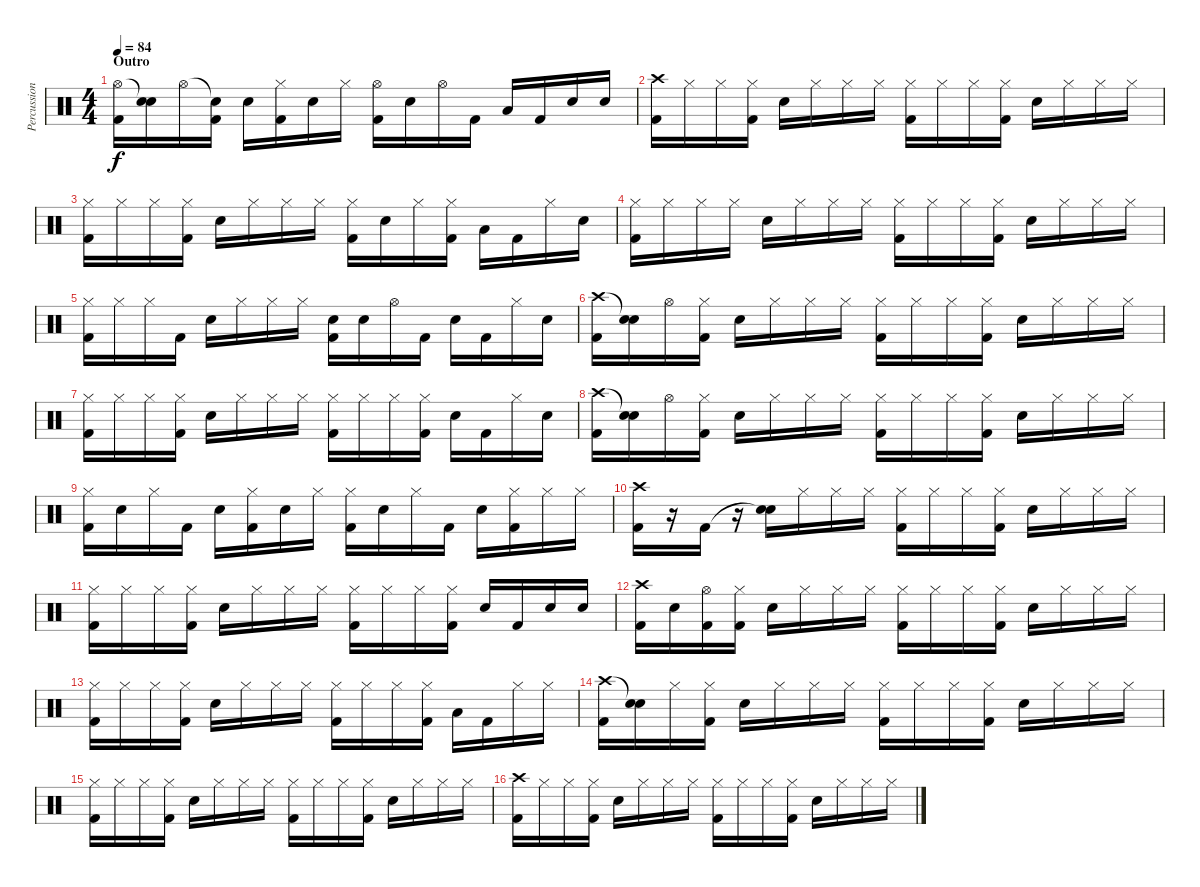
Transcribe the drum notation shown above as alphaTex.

\track ("Percussion" "Percussion") {instrument percussion}
\staff {score}
\articulation defaults
\ts (4 4)
\section ("" "Outro")
\tempo 84
\clef neutral
\ks c
("Hi-Hat (open)" "Kick (hit) 2").16{dy f} ("Snare (hit)"{t} "Snare (hit) 2").16 "Hi-Hat (open)".16 ("Snare (hit)"{t} "Kick (hit) 2").16 "Snare (hit) 2".16 ("Hi-Hat (closed)" "Kick (hit) 2").16 "Snare (hit) 2".16 "Hi-Hat (closed)".16 ("Hi-Hat (open)" "Kick (hit) 2").16 "Snare (hit) 2".16 "Hi-Hat (open)".16 "Kick (hit) 2".16 "Low Floor Tom (hit)".16 "Kick (hit) 2".16 "Snare (hit) 2".16 "Snare (hit) 2".16 |
("Crash high (hit)" "Kick (hit) 2").16 "Hi-Hat (closed)".16 "Hi-Hat (closed)".16 ("Hi-Hat (closed)" "Kick (hit) 2").16 "Snare (hit) 2".16 "Hi-Hat (closed)".16 "Hi-Hat (closed)".16 "Hi-Hat (closed)".16 ("Hi-Hat (closed)" "Kick (hit) 2").16 "Hi-Hat (closed)".16 "Hi-Hat (closed)".16 ("Hi-Hat (closed)" "Kick (hit) 2").16 "Snare (hit) 2".16 "Hi-Hat (closed)".16 "Hi-Hat (closed)".16 "Hi-Hat (closed)".16 |
("Hi-Hat (closed)" "Kick (hit) 2").16 "Hi-Hat (closed)".16 "Hi-Hat (closed)".16 ("Hi-Hat (closed)" "Kick (hit) 2").16 "Snare (hit) 2".16 "Hi-Hat (closed)".16 "Hi-Hat (closed)".16 "Hi-Hat (closed)".16 ("Hi-Hat (closed)" "Kick (hit) 2").16 "Snare (hit) 2".16 "Hi-Hat (closed)".16 ("Hi-Hat (closed)" "Kick (hit) 2").16 "Low Floor Tom (hit)".16 "Kick (hit) 2".16 "Hi-Hat (closed)".16 "Snare (hit) 2".16 |
("Hi-Hat (closed)" "Kick (hit) 2").16 "Hi-Hat (closed)".16 "Hi-Hat (closed)".16 "Hi-Hat (closed)".16 "Snare (hit) 2".16 "Hi-Hat (closed)".16 "Hi-Hat (closed)".16 "Hi-Hat (closed)".16 ("Hi-Hat (closed)" "Kick (hit) 2").16 "Hi-Hat (closed)".16 "Hi-Hat (closed)".16 ("Hi-Hat (closed)" "Kick (hit) 2").16 "Snare (hit) 2".16 "Hi-Hat (closed)".16 "Hi-Hat (closed)".16 "Hi-Hat (closed)".16 |
("Hi-Hat (closed)" "Kick (hit) 2").16 "Hi-Hat (closed)".16 "Hi-Hat (closed)".16 "Kick (hit) 2".16 "Snare (hit) 2".16 "Hi-Hat (closed)".16 "Hi-Hat (closed)".16 "Hi-Hat (closed)".16 ("Snare (hit) 2" "Kick (hit) 2").16 "Snare (hit) 2".16 "Hi-Hat (open)".16 "Kick (hit) 2".16 "Snare (hit) 2".16 "Kick (hit) 2".16 "Hi-Hat (closed)".16 "Snare (hit) 2".16 |
("Crash high (hit)" "Kick (hit) 2").16 ("Snare (hit)"{t} "Snare (hit) 2").16 "Hi-Hat (open)".16 ("Hi-Hat (closed)" "Kick (hit) 2").16 "Snare (hit) 2".16 "Hi-Hat (closed)".16 "Hi-Hat (closed)".16 "Hi-Hat (closed)".16 ("Hi-Hat (closed)" "Kick (hit) 2").16 "Hi-Hat (closed)".16 "Hi-Hat (closed)".16 ("Hi-Hat (closed)" "Kick (hit) 2").16 "Snare (hit) 2".16 "Hi-Hat (closed)".16 "Hi-Hat (closed)".16 "Hi-Hat (closed)".16 |
("Hi-Hat (closed)" "Kick (hit) 2").16 "Hi-Hat (closed)".16 "Hi-Hat (closed)".16 ("Hi-Hat (closed)" "Kick (hit) 2").16 "Snare (hit) 2".16 "Hi-Hat (closed)".16 "Hi-Hat (closed)".16 "Hi-Hat (closed)".16 ("Hi-Hat (closed)" "Kick (hit) 2").16 "Hi-Hat (closed)".16 "Hi-Hat (closed)".16 ("Hi-Hat (closed)" "Kick (hit) 2").16 "Snare (hit) 2".16 "Kick (hit) 2".16 "Hi-Hat (closed)".16 "Snare (hit) 2".16 |
("Crash high (hit)" "Kick (hit) 2").16 ("Snare (hit)"{t} "Snare (hit) 2").16 "Hi-Hat (open)".16 ("Hi-Hat (closed)" "Kick (hit) 2").16 "Snare (hit) 2".16 "Hi-Hat (closed)".16 "Hi-Hat (closed)".16 "Hi-Hat (closed)".16 ("Hi-Hat (closed)" "Kick (hit) 2").16 "Hi-Hat (closed)".16 "Hi-Hat (closed)".16 ("Hi-Hat (closed)" "Kick (hit) 2").16 "Snare (hit) 2".16 "Hi-Hat (closed)".16 "Hi-Hat (closed)".16 "Hi-Hat (closed)".16 |
("Hi-Hat (closed)" "Kick (hit) 2").16 "Snare (hit) 2".16 "Hi-Hat (closed)".16 "Kick (hit) 2".16 "Snare (hit) 2".16 ("Hi-Hat (closed)" "Kick (hit) 2").16 "Snare (hit) 2".16 "Hi-Hat (closed)".16 ("Hi-Hat (closed)" "Kick (hit) 2").16 "Snare (hit) 2".16 "Hi-Hat (closed)".16 "Kick (hit) 2".16 "Snare (hit) 2".16 ("Hi-Hat (closed)" "Kick (hit) 2").16 "Hi-Hat (closed)".16 "Hi-Hat (closed)".16 |
("Crash high (hit)" "Kick (hit) 2").16 r.16 "Kick (hit) 2".16 r.16 ("Snare (hit)"{t} "Snare (hit) 2").16 "Hi-Hat (closed)".16 "Hi-Hat (closed)".16 "Hi-Hat (closed)".16 ("Hi-Hat (closed)" "Kick (hit) 2").16 "Hi-Hat (closed)".16 "Hi-Hat (closed)".16 ("Hi-Hat (closed)" "Kick (hit) 2").16 "Snare (hit) 2".16 "Hi-Hat (closed)".16 "Hi-Hat (closed)".16 "Hi-Hat (closed)".16 |
("Hi-Hat (closed)" "Kick (hit) 2").16 "Hi-Hat (closed)".16 "Hi-Hat (closed)".16 ("Hi-Hat (closed)" "Kick (hit) 2").16 "Snare (hit) 2".16 "Hi-Hat (closed)".16 "Hi-Hat (closed)".16 "Hi-Hat (closed)".16 ("Hi-Hat (closed)" "Kick (hit) 2").16 "Hi-Hat (closed)".16 "Hi-Hat (closed)".16 ("Hi-Hat (closed)" "Kick (hit) 2").16 "Snare (hit) 2".16 "Kick (hit) 2".16 "Snare (hit) 2".16 "Snare (hit) 2".16 |
("Crash high (hit)" "Kick (hit) 2").16 "Snare (hit) 2".16 ("Hi-Hat (open)" "Kick (hit) 2").16 ("Hi-Hat (closed)" "Kick (hit) 2").16 "Snare (hit) 2".16 "Hi-Hat (closed)".16 "Hi-Hat (closed)".16 "Hi-Hat (closed)".16 ("Hi-Hat (closed)" "Kick (hit) 2").16 "Hi-Hat (closed)".16 "Hi-Hat (closed)".16 ("Hi-Hat (closed)" "Kick (hit) 2").16 "Snare (hit) 2".16 "Hi-Hat (closed)".16 "Hi-Hat (closed)".16 "Hi-Hat (closed)".16 |
("Hi-Hat (closed)" "Kick (hit) 2").16 "Hi-Hat (closed)".16 "Hi-Hat (closed)".16 ("Hi-Hat (closed)" "Kick (hit) 2").16 "Snare (hit) 2".16 "Hi-Hat (closed)".16 "Hi-Hat (closed)".16 "Hi-Hat (closed)".16 ("Hi-Hat (closed)" "Kick (hit) 2").16 "Hi-Hat (closed)".16 "Hi-Hat (closed)".16 ("Hi-Hat (closed)" "Kick (hit) 2").16 "Low Floor Tom (hit)".16 "Kick (hit) 2".16 "Hi-Hat (closed)".16 "Hi-Hat (closed)".16 |
("Crash high (hit)" "Kick (hit) 2").16 ("Snare (hit)"{t} "Snare (hit) 2").16 "Hi-Hat (closed)".16 ("Hi-Hat (closed)" "Kick (hit) 2").16 "Snare (hit) 2".16 "Hi-Hat (closed)".16 "Hi-Hat (closed)".16 "Hi-Hat (closed)".16 ("Hi-Hat (closed)" "Kick (hit) 2").16 "Hi-Hat (closed)".16 "Hi-Hat (closed)".16 ("Hi-Hat (closed)" "Kick (hit) 2").16 "Snare (hit) 2".16 "Hi-Hat (closed)".16 "Hi-Hat (closed)".16 "Hi-Hat (closed)".16 |
("Hi-Hat (closed)" "Kick (hit) 2").16 "Hi-Hat (closed)".16 "Hi-Hat (closed)".16 ("Hi-Hat (closed)" "Kick (hit) 2").16 "Snare (hit) 2".16 "Hi-Hat (closed)".16 "Hi-Hat (closed)".16 "Hi-Hat (closed)".16 ("Hi-Hat (closed)" "Kick (hit) 2").16 "Hi-Hat (closed)".16 "Hi-Hat (closed)".16 ("Hi-Hat (closed)" "Kick (hit) 2").16 "Snare (hit) 2".16 "Hi-Hat (closed)".16 "Hi-Hat (closed)".16 "Hi-Hat (closed)".16 |
("Crash high (hit)" "Kick (hit) 2").16 "Hi-Hat (closed)".16 "Hi-Hat (closed)".16 ("Hi-Hat (closed)" "Kick (hit) 2").16 "Snare (hit) 2".16 "Hi-Hat (closed)".16 "Hi-Hat (closed)".16 "Hi-Hat (closed)".16 ("Hi-Hat (closed)" "Kick (hit) 2").16 "Hi-Hat (closed)".16 "Hi-Hat (closed)".16 ("Hi-Hat (closed)" "Kick (hit) 2").16 "Snare (hit) 2".16 "Hi-Hat (closed)".16 "Hi-Hat (closed)".16 "Hi-Hat (closed)".16
